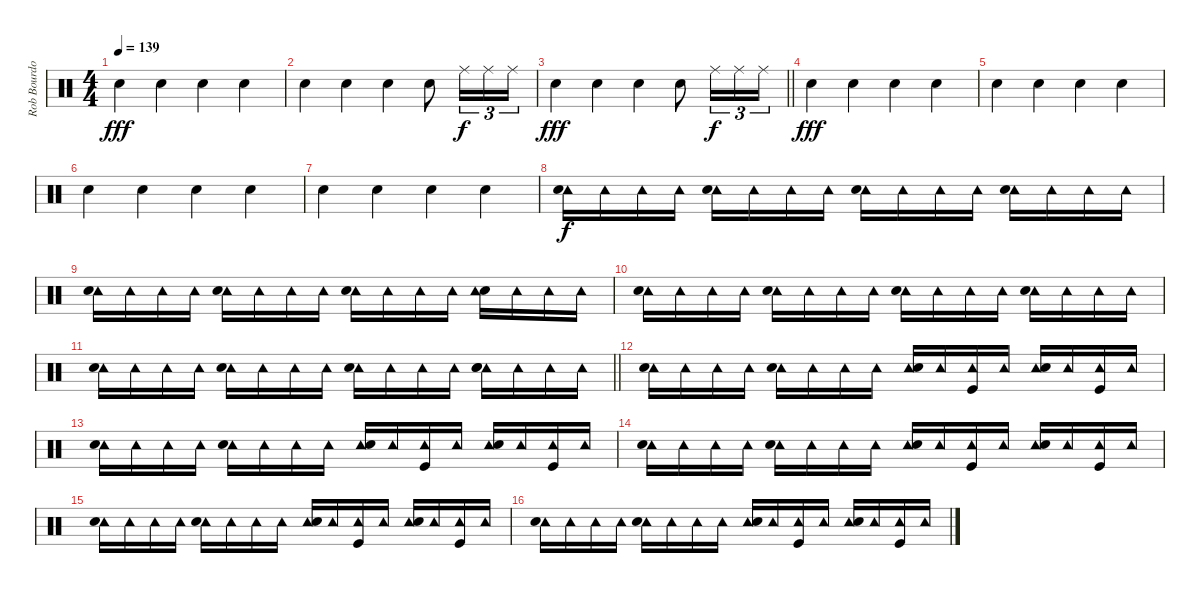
\track ("Rob Bourdon [Drums] / Clap from Audience" "Rob Bourdo") {instrument percussion}
\staff {score}
\articulation defaults
\ts (4 4)
\tempo 139
\clef neutral
\ks c "Hand Clap (hit)".4{dy fff} "Hand Clap (hit)".4 "Hand Clap (hit)".4 "Hand Clap (hit)".4
|
"Hand Clap (hit)".4 "Hand Clap (hit)".4 "Hand Clap (hit)".4 "Hand Clap (hit)".8 "Ride (middle)".16{tu (3 2) dy f} "Ride (middle)".16{tu (3 2)} "Ride (middle)".16{tu (3 2)} |
\barLineRight lightlight "Hand Clap (hit)".4{dy fff} "Hand Clap (hit)".4 "Hand Clap (hit)".4 "Hand Clap (hit)".8 "Ride (middle)".16{tu (3 2) dy f} "Ride (middle)".16{tu (3 2)} "Ride (middle)".16{tu (3 2)}
|
"Hand Clap (hit)".4{dy fff} "Hand Clap (hit)".4 "Hand Clap (hit)".4 "Hand Clap (hit)".4 |
"Hand Clap (hit)".4 "Hand Clap (hit)".4 "Hand Clap (hit)".4 "Hand Clap (hit)".4 |
"Hand Clap (hit)".4 "Hand Clap (hit)".4 "Hand Clap (hit)".4 "Hand Clap (hit)".4 |
"Hand Clap (hit)".4 "Hand Clap (hit)".4 "Hand Clap (hit)".4 "Hand Clap (hit)".4 |
("Tambourine (hit)" "Hand Clap (hit)").16{dy f} "Tambourine (hit)".16 "Tambourine (hit)".16 "Tambourine (hit)".16 ("Tambourine (hit)" "Hand Clap (hit)").16 "Tambourine (hit)".16 "Tambourine (hit)".16 "Tambourine (hit)".16 ("Tambourine (hit)" "Hand Clap (hit)").16 "Tambourine (hit)".16 "Tambourine (hit)".16 "Tambourine (hit)".16 ("Tambourine (hit)" "Hand Clap (hit)").16 "Tambourine (hit)".16 "Tambourine (hit)".16 "Tambourine (hit)".16 |
("Tambourine (hit)" "Hand Clap (hit)").16 "Tambourine (hit)".16 "Tambourine (hit)".16 "Tambourine (hit)".16 ("Tambourine (hit)" "Hand Clap (hit)").16 "Tambourine (hit)".16 "Tambourine (hit)".16 "Tambourine (hit)".16 ("Tambourine (hit)" "Hand Clap (hit)").16 "Tambourine (hit)".16 "Tambourine (hit)".16 "Tambourine (hit)".16 ("Hand Clap (hit)" "Tambourine (hit)").16 "Tambourine (hit)".16 "Tambourine (hit)".16 "Tambourine (hit)".16 |
("Tambourine (hit)" "Hand Clap (hit)").16 "Tambourine (hit)".16 "Tambourine (hit)".16 "Tambourine (hit)".16 ("Tambourine (hit)" "Hand Clap (hit)").16 "Tambourine (hit)".16 "Tambourine (hit)".16 "Tambourine (hit)".16 ("Tambourine (hit)" "Hand Clap (hit)").16 "Tambourine (hit)".16 "Tambourine (hit)".16 "Tambourine (hit)".16 ("Tambourine (hit)" "Hand Clap (hit)").16 "Tambourine (hit)".16 "Tambourine (hit)".16 "Tambourine (hit)".16 |
\barLineRight lightlight
("Tambourine (hit)" "Hand Clap (hit)").16 "Tambourine (hit)".16 "Tambourine (hit)".16 "Tambourine (hit)".16 ("Tambourine (hit)" "Hand Clap (hit)").16 "Tambourine (hit)".16 "Tambourine (hit)".16 "Tambourine (hit)".16 ("Tambourine (hit)" "Hand Clap (hit)").16 "Tambourine (hit)".16 "Tambourine (hit)".16 "Tambourine (hit)".16 ("Tambourine (hit)" "Snare (hit) 2" "Hand Clap (hit)").16 "Tambourine (hit)".16 "Tambourine (hit)".16 "Tambourine (hit)".16 |
("Tambourine (hit)" "Snare (hit) 2").16 "Tambourine (hit)".16 "Tambourine (hit)".16 "Tambourine (hit)".16 ("Tambourine (hit)" "Snare (hit) 2").16 "Tambourine (hit)".16 "Tambourine (hit)".16 "Tambourine (hit)".16 ("Tambourine (hit)" "Snare (hit) 2").16 "Tambourine (hit)".16 ("Tambourine (hit)" "Kick (hit)").16 "Tambourine (hit)".16 ("Tambourine (hit)" "Snare (hit) 2").16 "Tambourine (hit)".16 ("Tambourine (hit)" "Kick (hit)").16 "Tambourine (hit)".16 |
("Tambourine (hit)" "Snare (hit) 2").16 "Tambourine (hit)".16 "Tambourine (hit)".16 "Tambourine (hit)".16 ("Tambourine (hit)" "Snare (hit) 2").16 "Tambourine (hit)".16 "Tambourine (hit)".16 "Tambourine (hit)".16 ("Tambourine (hit)" "Snare (hit) 2").16 "Tambourine (hit)".16 ("Tambourine (hit)" "Kick (hit)").16 "Tambourine (hit)".16 ("Tambourine (hit)" "Snare (hit) 2").16 "Tambourine (hit)".16 ("Tambourine (hit)" "Kick (hit)").16 "Tambourine (hit)".16 |
("Tambourine (hit)" "Snare (hit) 2").16 "Tambourine (hit)".16 "Tambourine (hit)".16 "Tambourine (hit)".16 ("Tambourine (hit)" "Snare (hit) 2").16 "Tambourine (hit)".16 "Tambourine (hit)".16 "Tambourine (hit)".16 ("Tambourine (hit)" "Snare (hit) 2").16 "Tambourine (hit)".16 ("Tambourine (hit)" "Kick (hit)").16 "Tambourine (hit)".16 ("Tambourine (hit)" "Snare (hit) 2").16 "Tambourine (hit)".16 ("Tambourine (hit)" "Kick (hit)").16 "Tambourine (hit)".16 |
("Tambourine (hit)" "Snare (hit) 2").16 "Tambourine (hit)".16 "Tambourine (hit)".16 "Tambourine (hit)".16 ("Tambourine (hit)" "Snare (hit) 2").16 "Tambourine (hit)".16 "Tambourine (hit)".16 "Tambourine (hit)".16 ("Tambourine (hit)" "Snare (hit) 2").16 "Tambourine (hit)".16 ("Tambourine (hit)" "Kick (hit)").16 "Tambourine (hit)".16 ("Tambourine (hit)" "Snare (hit) 2").16 "Tambourine (hit)".16 ("Tambourine (hit)" "Kick (hit)").16 "Tambourine (hit)".16 |
("Tambourine (hit)" "Snare (hit) 2").16 "Tambourine (hit)".16 "Tambourine (hit)".16 "Tambourine (hit)".16 ("Tambourine (hit)" "Snare (hit) 2").16 "Tambourine (hit)".16 "Tambourine (hit)".16 "Tambourine (hit)".16 ("Tambourine (hit)" "Snare (hit) 2").16 "Tambourine (hit)".16 ("Tambourine (hit)" "Kick (hit)").16 "Tambourine (hit)".16 ("Tambourine (hit)" "Snare (hit) 2").16 "Tambourine (hit)".16 ("Tambourine (hit)" "Kick (hit)").16 "Tambourine (hit)".16
